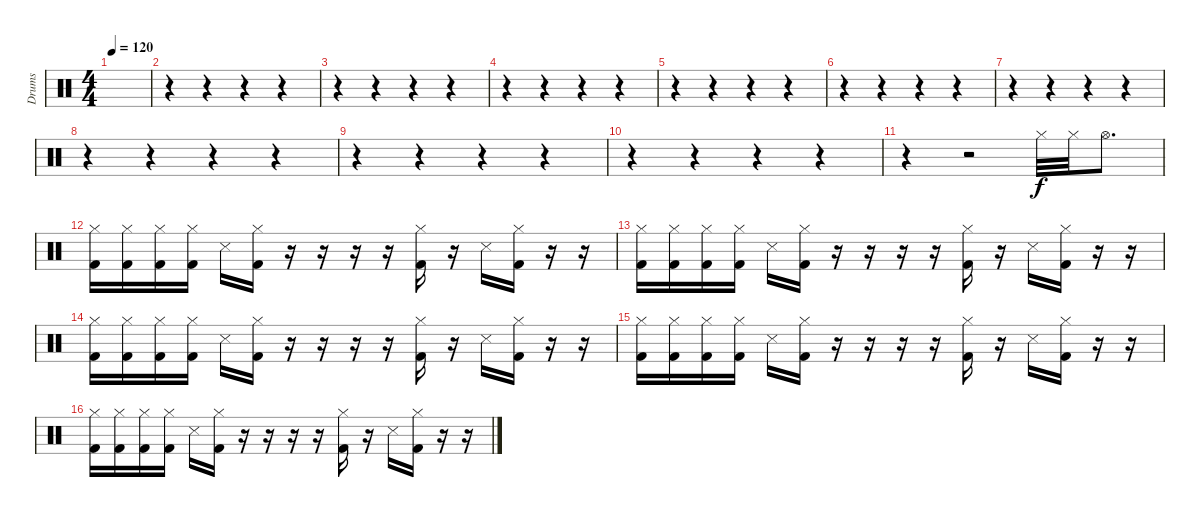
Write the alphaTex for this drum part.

\track ("Drums" "Drums") {instrument percussion}
\staff {score}
\articulation defaults
\ts (4 4)
\tempo 120
\clef neutral
\ks c
|
r.4 r.4 r.4 r.4 |
r.4 r.4 r.4 r.4 |
r.4 r.4 r.4 r.4 |
r.4 r.4 r.4 r.4 |
r.4 r.4 r.4 r.4 |
r.4 r.4 r.4 r.4 |
r.4 r.4 r.4 r.4 |
r.4 r.4 r.4 r.4 |
r.4 r.4 r.4 r.4 |
r.4 r.2 "Hi-Hat (closed)".32 "Hi-Hat (closed)".32 "Hi-Hat (open)".8{d} |
("Hi-Hat (closed)" "Kick (hit) 2").16 ("Hi-Hat (closed)" "Kick (hit) 2").16 ("Hi-Hat (closed)" "Kick (hit) 2").16 ("Hi-Hat (closed)" "Kick (hit) 2").16 "Snare (side stick) 3".16 ("Hi-Hat (closed)" "Kick (hit) 2").16 r.16 r.16 r.16 r.16 ("Hi-Hat (closed)" "Kick (hit) 2").16 r.16 "Snare (side stick) 3".16 ("Hi-Hat (closed)" "Kick (hit) 2").16 r.16 r.16 |
("Hi-Hat (closed)" "Kick (hit) 2").16 ("Hi-Hat (closed)" "Kick (hit) 2").16 ("Hi-Hat (closed)" "Kick (hit) 2").16 ("Hi-Hat (closed)" "Kick (hit) 2").16 "Snare (side stick) 3".16 ("Hi-Hat (closed)" "Kick (hit) 2").16 r.16 r.16 r.16 r.16 ("Hi-Hat (closed)" "Kick (hit) 2").16 r.16 "Snare (side stick) 3".16 ("Hi-Hat (closed)" "Kick (hit) 2").16 r.16 r.16 |
("Hi-Hat (closed)" "Kick (hit) 2").16 ("Hi-Hat (closed)" "Kick (hit) 2").16 ("Hi-Hat (closed)" "Kick (hit) 2").16 ("Hi-Hat (closed)" "Kick (hit) 2").16 "Snare (side stick) 3".16 ("Hi-Hat (closed)" "Kick (hit) 2").16 r.16 r.16 r.16 r.16 ("Hi-Hat (closed)" "Kick (hit) 2").16 r.16 "Snare (side stick) 3".16 ("Hi-Hat (closed)" "Kick (hit) 2").16 r.16 r.16 |
("Hi-Hat (closed)" "Kick (hit) 2").16 ("Hi-Hat (closed)" "Kick (hit) 2").16 ("Hi-Hat (closed)" "Kick (hit) 2").16 ("Hi-Hat (closed)" "Kick (hit) 2").16 "Snare (side stick) 3".16 ("Hi-Hat (closed)" "Kick (hit) 2").16 r.16 r.16 r.16 r.16 ("Hi-Hat (closed)" "Kick (hit) 2").16 r.16 "Snare (side stick) 3".16 ("Hi-Hat (closed)" "Kick (hit) 2").16 r.16 r.16 |
("Hi-Hat (closed)" "Kick (hit) 2").16 ("Hi-Hat (closed)" "Kick (hit) 2").16 ("Hi-Hat (closed)" "Kick (hit) 2").16 ("Hi-Hat (closed)" "Kick (hit) 2").16 "Snare (side stick) 3".16 ("Hi-Hat (closed)" "Kick (hit) 2").16 r.16 r.16 r.16 r.16 ("Hi-Hat (closed)" "Kick (hit) 2").16 r.16 "Snare (side stick) 3".16 ("Hi-Hat (closed)" "Kick (hit) 2").16 r.16 r.16
